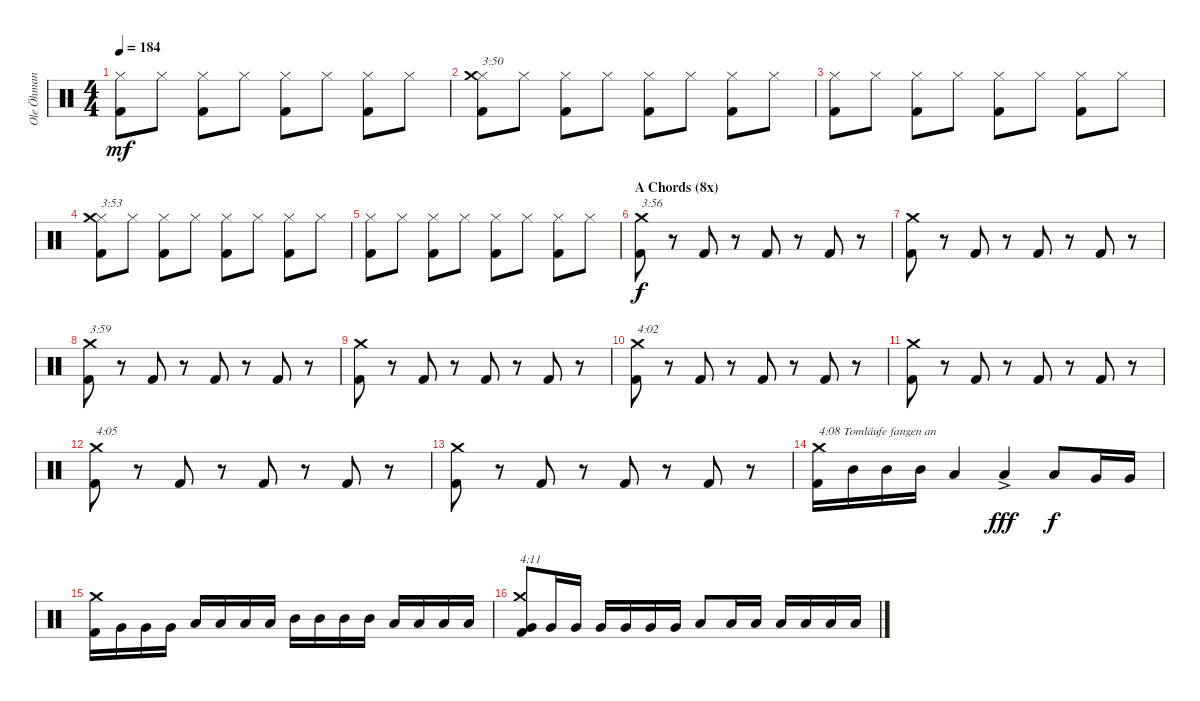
\track ("Ole Öhman" "Ole Öhman") {instrument percussion}
\staff {score}
\articulation defaults
\ts (4 4)
\tempo 184
\clef neutral
\ks c
("Kick (hit) 2" "Hi-Hat (closed)").8{dy mf} "Hi-Hat (closed)".8 ("Kick (hit) 2" "Hi-Hat (closed)").8 "Hi-Hat (closed)".8 ("Kick (hit) 2" "Hi-Hat (closed)").8 "Hi-Hat (closed)".8 ("Kick (hit) 2" "Hi-Hat (closed)").8 "Hi-Hat (closed)".8 |
("Kick (hit) 2" "Hi-Hat (closed)" "Crash medium (hit)").8{txt "3:50"} "Hi-Hat (closed)".8 ("Kick (hit) 2" "Hi-Hat (closed)").8 "Hi-Hat (closed)".8 ("Kick (hit) 2" "Hi-Hat (closed)").8 "Hi-Hat (closed)".8 ("Kick (hit) 2" "Hi-Hat (closed)").8 "Hi-Hat (closed)".8 |
("Kick (hit) 2" "Hi-Hat (closed)").8 "Hi-Hat (closed)".8 ("Kick (hit) 2" "Hi-Hat (closed)").8 "Hi-Hat (closed)".8 ("Kick (hit) 2" "Hi-Hat (closed)").8 "Hi-Hat (closed)".8 ("Kick (hit) 2" "Hi-Hat (closed)").8 "Hi-Hat (closed)".8 |
("Kick (hit) 2" "Hi-Hat (closed)" "Crash medium (hit)").8{txt "3:53"} "Hi-Hat (closed)".8 ("Kick (hit) 2" "Hi-Hat (closed)").8 "Hi-Hat (closed)".8 ("Kick (hit) 2" "Hi-Hat (closed)").8 "Hi-Hat (closed)".8 ("Kick (hit) 2" "Hi-Hat (closed)").8 "Hi-Hat (closed)".8 |
("Kick (hit) 2" "Hi-Hat (closed)").8 "Hi-Hat (closed)".8 ("Kick (hit) 2" "Hi-Hat (closed)").8 "Hi-Hat (closed)".8 ("Kick (hit) 2" "Hi-Hat (closed)").8 "Hi-Hat (closed)".8 ("Kick (hit) 2" "Hi-Hat (closed)").8 "Hi-Hat (closed)".8 |
\section ("" "A Chords (8x)")
("Kick (hit) 2" "Crash medium (hit)").8{txt "3:56" dy f} r.8 "Kick (hit) 2".8 r.8 "Kick (hit) 2".8 r.8 "Kick (hit) 2".8 r.8 |
("Kick (hit) 2" "Crash medium (hit)").8 r.8 "Kick (hit) 2".8 r.8 "Kick (hit) 2".8 r.8 "Kick (hit) 2".8 r.8 |
("Kick (hit) 2" "Crash medium (hit)").8{txt "3:59"} r.8 "Kick (hit) 2".8 r.8 "Kick (hit) 2".8 r.8 "Kick (hit) 2".8 r.8 |
("Kick (hit) 2" "Crash medium (hit)").8 r.8 "Kick (hit) 2".8 r.8 "Kick (hit) 2".8 r.8 "Kick (hit) 2".8 r.8 |
("Kick (hit) 2" "Crash medium (hit)").8{txt "4:02"} r.8 "Kick (hit) 2".8 r.8 "Kick (hit) 2".8 r.8 "Kick (hit) 2".8 r.8 |
("Kick (hit) 2" "Crash medium (hit)").8 r.8 "Kick (hit) 2".8 r.8 "Kick (hit) 2".8 r.8 "Kick (hit) 2".8 r.8 |
("Kick (hit) 2" "Crash medium (hit)").8{txt "4:05"} r.8 "Kick (hit) 2".8 r.8 "Kick (hit) 2".8 r.8 "Kick (hit) 2".8 r.8 |
("Kick (hit) 2" "Crash medium (hit)").8 r.8 "Kick (hit) 2".8 r.8 "Kick (hit) 2".8 r.8 "Kick (hit) 2".8 r.8 |
("Kick (hit) 2" "Crash medium (hit)").16{txt "4:08 Tomläufe fangen an"} "Mid Tom (hit)".16 "Mid Tom (hit)".16 "Mid Tom (hit)".16 "Low Tom (hit)".4 "Low Tom (hit)"{ac}.4{dy fff} "Low Tom (hit)".8{dy f} "Very Low Tom (hit)".16 "Very Low Tom (hit)".16 |
("Kick (hit) 2" "Crash medium (hit)").16 "Very Low Tom (hit)".16 "Very Low Tom (hit)".16 "Very Low Tom (hit)".16 "Low Tom (hit)".16 "Low Tom (hit)".16 "Low Tom (hit)".16 "Low Tom (hit)".16 "Mid Tom (hit)".16 "Mid Tom (hit)".16 "Mid Tom (hit)".16 "Mid Tom (hit)".16 "Low Tom (hit)".16 "Low Tom (hit)".16 "Low Tom (hit)".16 "Low Tom (hit)".16 |
("Kick (hit) 2" "Very Low Tom (hit)" "Crash medium (hit)").8{txt "4:11"} "Very Low Tom (hit)".16 "Very Low Tom (hit)".16 "Very Low Tom (hit)".16 "Very Low Tom (hit)".16 "Very Low Tom (hit)".16 "Very Low Tom (hit)".16 "Low Tom (hit)".8 "Low Tom (hit)".16 "Low Tom (hit)".16 "Low Tom (hit)".16 "Low Tom (hit)".16 "Low Tom (hit)".16 "Low Tom (hit)".16
